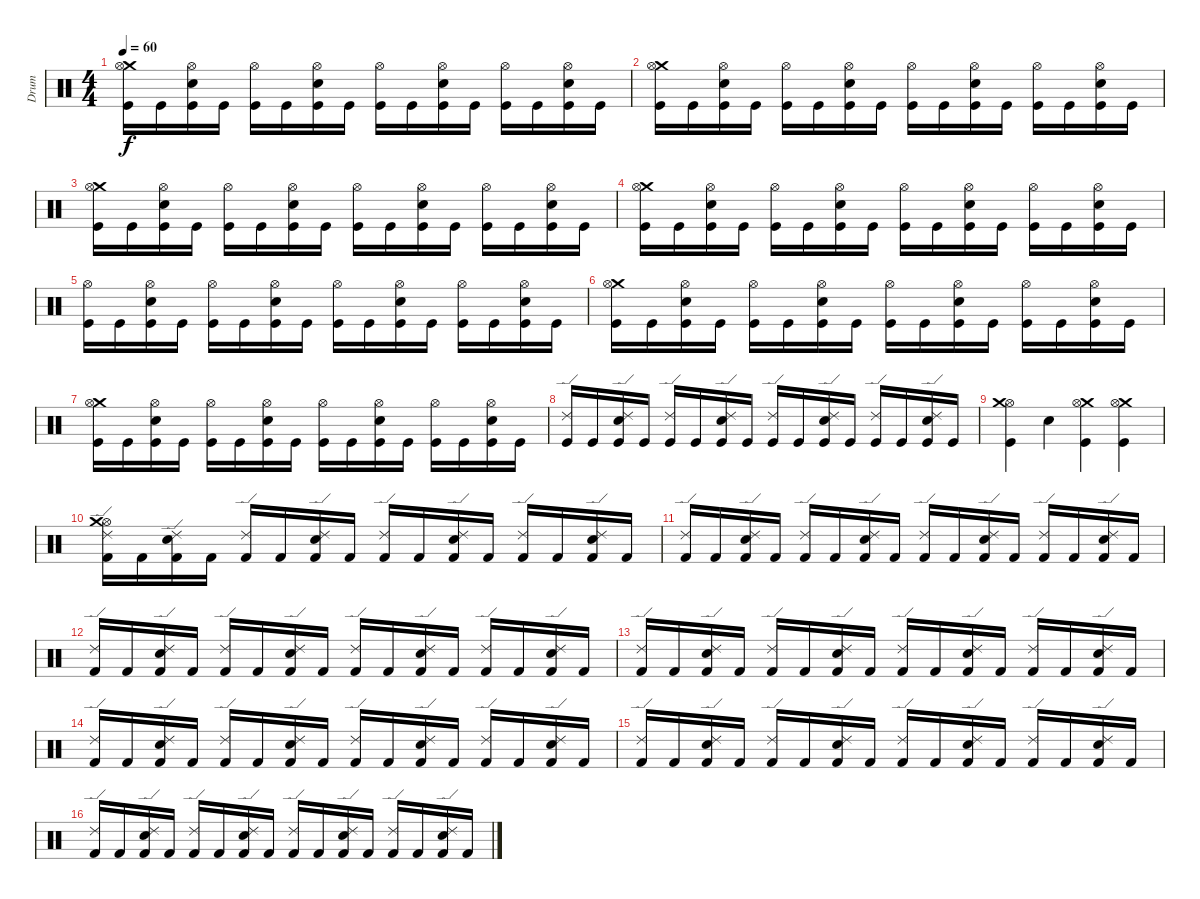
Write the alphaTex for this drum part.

\track ("Drum" "Drum") {instrument percussion}
\staff {score}
\articulation defaults
\ts (4 4)
\tempo 60
\clef neutral
\ks c
("Crash medium (hit)" "Hi-Hat (open)" "Kick (hit)").16{dy f} "Kick (hit)".16 ("Electric Snare (hit)" "Hi-Hat (open)" "Kick (hit)").16 "Kick (hit)".16 ("Hi-Hat (open)" "Kick (hit)").16 "Kick (hit)".16 ("Electric Snare (hit)" "Hi-Hat (open)" "Kick (hit)").16 "Kick (hit)".16 ("Hi-Hat (open)" "Kick (hit)").16 "Kick (hit)".16 ("Electric Snare (hit)" "Hi-Hat (open)" "Kick (hit)").16 "Kick (hit)".16 ("Hi-Hat (open)" "Kick (hit)").16 "Kick (hit)".16 ("Electric Snare (hit)" "Hi-Hat (open)" "Kick (hit)").16 "Kick (hit)".16 |
("Crash medium (hit)" "Hi-Hat (open)" "Kick (hit)").16 "Kick (hit)".16 ("Electric Snare (hit)" "Hi-Hat (open)" "Kick (hit)").16 "Kick (hit)".16 ("Hi-Hat (open)" "Kick (hit)").16 "Kick (hit)".16 ("Electric Snare (hit)" "Hi-Hat (open)" "Kick (hit)").16 "Kick (hit)".16 ("Hi-Hat (open)" "Kick (hit)").16 "Kick (hit)".16 ("Electric Snare (hit)" "Hi-Hat (open)" "Kick (hit)").16 "Kick (hit)".16 ("Hi-Hat (open)" "Kick (hit)").16 "Kick (hit)".16 ("Electric Snare (hit)" "Hi-Hat (open)" "Kick (hit)").16 "Kick (hit)".16 |
("Crash medium (hit)" "Hi-Hat (open)" "Kick (hit)").16 "Kick (hit)".16 ("Electric Snare (hit)" "Hi-Hat (open)" "Kick (hit)").16 "Kick (hit)".16 ("Hi-Hat (open)" "Kick (hit)").16 "Kick (hit)".16 ("Electric Snare (hit)" "Hi-Hat (open)" "Kick (hit)").16 "Kick (hit)".16 ("Hi-Hat (open)" "Kick (hit)").16 "Kick (hit)".16 ("Electric Snare (hit)" "Hi-Hat (open)" "Kick (hit)").16 "Kick (hit)".16 ("Hi-Hat (open)" "Kick (hit)").16 "Kick (hit)".16 ("Electric Snare (hit)" "Hi-Hat (open)" "Kick (hit)").16 "Kick (hit)".16 |
("Crash medium (hit)" "Hi-Hat (open)" "Kick (hit)").16 "Kick (hit)".16 ("Electric Snare (hit)" "Hi-Hat (open)" "Kick (hit)").16 "Kick (hit)".16 ("Hi-Hat (open)" "Kick (hit)").16 "Kick (hit)".16 ("Electric Snare (hit)" "Hi-Hat (open)" "Kick (hit)").16 "Kick (hit)".16 ("Hi-Hat (open)" "Kick (hit)").16 "Kick (hit)".16 ("Electric Snare (hit)" "Hi-Hat (open)" "Kick (hit)").16 "Kick (hit)".16 ("Hi-Hat (open)" "Kick (hit)").16 "Kick (hit)".16 ("Electric Snare (hit)" "Hi-Hat (open)" "Kick (hit)").16 "Kick (hit)".16 |
("Hi-Hat (open)" "Kick (hit)").16 "Kick (hit)".16 ("Electric Snare (hit)" "Hi-Hat (open)" "Kick (hit)").16 "Kick (hit)".16 ("Hi-Hat (open)" "Kick (hit)").16 "Kick (hit)".16 ("Electric Snare (hit)" "Hi-Hat (open)" "Kick (hit)").16 "Kick (hit)".16 ("Hi-Hat (open)" "Kick (hit)").16 "Kick (hit)".16 ("Electric Snare (hit)" "Hi-Hat (open)" "Kick (hit)").16 "Kick (hit)".16 ("Hi-Hat (open)" "Kick (hit)").16 "Kick (hit)".16 ("Electric Snare (hit)" "Hi-Hat (open)" "Kick (hit)").16 "Kick (hit)".16 |
("Crash medium (hit)" "Hi-Hat (open)" "Kick (hit)").16 "Kick (hit)".16 ("Electric Snare (hit)" "Hi-Hat (open)" "Kick (hit)").16 "Kick (hit)".16 ("Hi-Hat (open)" "Kick (hit)").16 "Kick (hit)".16 ("Electric Snare (hit)" "Hi-Hat (open)" "Kick (hit)").16 "Kick (hit)".16 ("Hi-Hat (open)" "Kick (hit)").16 "Kick (hit)".16 ("Electric Snare (hit)" "Hi-Hat (open)" "Kick (hit)").16 "Kick (hit)".16 ("Hi-Hat (open)" "Kick (hit)").16 "Kick (hit)".16 ("Electric Snare (hit)" "Hi-Hat (open)" "Kick (hit)").16 "Kick (hit)".16 |
("Crash medium (hit)" "Hi-Hat (open)" "Kick (hit)").16 "Kick (hit)".16 ("Electric Snare (hit)" "Hi-Hat (open)" "Kick (hit)").16 "Kick (hit)".16 ("Hi-Hat (open)" "Kick (hit)").16 "Kick (hit)".16 ("Electric Snare (hit)" "Hi-Hat (open)" "Kick (hit)").16 "Kick (hit)".16 ("Hi-Hat (open)" "Kick (hit)").16 "Kick (hit)".16 ("Electric Snare (hit)" "Hi-Hat (open)" "Kick (hit)").16 "Kick (hit)".16 ("Hi-Hat (open)" "Kick (hit)").16 "Kick (hit)".16 ("Electric Snare (hit)" "Hi-Hat (open)" "Kick (hit)").16 "Kick (hit)".16 |
("Kick (hit)" "Ride (edge) 2").16 "Kick (hit)".16 ("Electric Snare (hit)" "Kick (hit)" "Ride (edge) 2").16 "Kick (hit)".16 ("Kick (hit)" "Ride (edge) 2").16 "Kick (hit)".16 ("Electric Snare (hit)" "Kick (hit)" "Ride (edge) 2").16 "Kick (hit)".16 ("Kick (hit)" "Ride (edge) 2").16 "Kick (hit)".16 ("Electric Snare (hit)" "Kick (hit)" "Ride (edge) 2").16 "Kick (hit)".16 ("Kick (hit)" "Ride (edge) 2").16 "Kick (hit)".16 ("Electric Snare (hit)" "Kick (hit)" "Ride (edge) 2").16 "Kick (hit)".16 |
("Kick (hit)" "Hi-Hat (open)" "Crash medium (hit)").4 "Electric Snare (hit)".4 ("Crash medium (hit)" "Hi-Hat (open)" "Kick (hit)").4 ("Crash medium (hit)" "Hi-Hat (open)" "Kick (hit)").4 |
("Hi-Hat (open)" "Crash medium (hit)" "Ride (edge) 2" "Kick (hit) 2").16 "Kick (hit) 2".16 ("Electric Snare (hit)" "Ride (edge) 2" "Kick (hit) 2").16 "Kick (hit) 2".16 ("Ride (edge) 2" "Kick (hit) 2").16 "Kick (hit) 2".16 ("Electric Snare (hit)" "Ride (edge) 2" "Kick (hit) 2").16 "Kick (hit) 2".16 ("Ride (edge) 2" "Kick (hit) 2").16 "Kick (hit) 2".16 ("Electric Snare (hit)" "Ride (edge) 2" "Kick (hit) 2").16 "Kick (hit) 2".16 ("Ride (edge) 2" "Kick (hit) 2").16 "Kick (hit) 2".16 ("Electric Snare (hit)" "Ride (edge) 2" "Kick (hit) 2").16 "Kick (hit) 2".16 |
("Ride (edge) 2" "Kick (hit) 2").16 "Kick (hit) 2".16 ("Electric Snare (hit)" "Ride (edge) 2" "Kick (hit) 2").16 "Kick (hit) 2".16 ("Ride (edge) 2" "Kick (hit) 2").16 "Kick (hit) 2".16 ("Electric Snare (hit)" "Ride (edge) 2" "Kick (hit) 2").16 "Kick (hit) 2".16 ("Ride (edge) 2" "Kick (hit) 2").16 "Kick (hit) 2".16 ("Electric Snare (hit)" "Ride (edge) 2" "Kick (hit) 2").16 "Kick (hit) 2".16 ("Ride (edge) 2" "Kick (hit) 2").16 "Kick (hit) 2".16 ("Electric Snare (hit)" "Ride (edge) 2" "Kick (hit) 2").16 "Kick (hit) 2".16 |
("Ride (edge) 2" "Kick (hit) 2").16 "Kick (hit) 2".16 ("Electric Snare (hit)" "Ride (edge) 2" "Kick (hit) 2").16 "Kick (hit) 2".16 ("Ride (edge) 2" "Kick (hit) 2").16 "Kick (hit) 2".16 ("Electric Snare (hit)" "Ride (edge) 2" "Kick (hit) 2").16 "Kick (hit) 2".16 ("Ride (edge) 2" "Kick (hit) 2").16 "Kick (hit) 2".16 ("Electric Snare (hit)" "Ride (edge) 2" "Kick (hit) 2").16 "Kick (hit) 2".16 ("Ride (edge) 2" "Kick (hit) 2").16 "Kick (hit) 2".16 ("Electric Snare (hit)" "Ride (edge) 2" "Kick (hit) 2").16 "Kick (hit) 2".16 |
("Ride (edge) 2" "Kick (hit) 2").16 "Kick (hit) 2".16 ("Electric Snare (hit)" "Ride (edge) 2" "Kick (hit) 2").16 "Kick (hit) 2".16 ("Ride (edge) 2" "Kick (hit) 2").16 "Kick (hit) 2".16 ("Electric Snare (hit)" "Ride (edge) 2" "Kick (hit) 2").16 "Kick (hit) 2".16 ("Ride (edge) 2" "Kick (hit) 2").16 "Kick (hit) 2".16 ("Electric Snare (hit)" "Ride (edge) 2" "Kick (hit) 2").16 "Kick (hit) 2".16 ("Ride (edge) 2" "Kick (hit) 2").16 "Kick (hit) 2".16 ("Electric Snare (hit)" "Ride (edge) 2" "Kick (hit) 2").16 "Kick (hit) 2".16 |
("Ride (edge) 2" "Kick (hit) 2").16 "Kick (hit) 2".16 ("Electric Snare (hit)" "Ride (edge) 2" "Kick (hit) 2").16 "Kick (hit) 2".16 ("Ride (edge) 2" "Kick (hit) 2").16 "Kick (hit) 2".16 ("Electric Snare (hit)" "Ride (edge) 2" "Kick (hit) 2").16 "Kick (hit) 2".16 ("Ride (edge) 2" "Kick (hit) 2").16 "Kick (hit) 2".16 ("Electric Snare (hit)" "Ride (edge) 2" "Kick (hit) 2").16 "Kick (hit) 2".16 ("Ride (edge) 2" "Kick (hit) 2").16 "Kick (hit) 2".16 ("Electric Snare (hit)" "Ride (edge) 2" "Kick (hit) 2").16 "Kick (hit) 2".16 |
("Ride (edge) 2" "Kick (hit) 2").16 "Kick (hit) 2".16 ("Electric Snare (hit)" "Ride (edge) 2" "Kick (hit) 2").16 "Kick (hit) 2".16 ("Ride (edge) 2" "Kick (hit) 2").16 "Kick (hit) 2".16 ("Electric Snare (hit)" "Ride (edge) 2" "Kick (hit) 2").16 "Kick (hit) 2".16 ("Ride (edge) 2" "Kick (hit) 2").16 "Kick (hit) 2".16 ("Electric Snare (hit)" "Ride (edge) 2" "Kick (hit) 2").16 "Kick (hit) 2".16 ("Ride (edge) 2" "Kick (hit) 2").16 "Kick (hit) 2".16 ("Electric Snare (hit)" "Ride (edge) 2" "Kick (hit) 2").16 "Kick (hit) 2".16 |
("Ride (edge) 2" "Kick (hit) 2").16 "Kick (hit) 2".16 ("Electric Snare (hit)" "Ride (edge) 2" "Kick (hit) 2").16 "Kick (hit) 2".16 ("Ride (edge) 2" "Kick (hit) 2").16 "Kick (hit) 2".16 ("Electric Snare (hit)" "Ride (edge) 2" "Kick (hit) 2").16 "Kick (hit) 2".16 ("Ride (edge) 2" "Kick (hit) 2").16 "Kick (hit) 2".16 ("Electric Snare (hit)" "Ride (edge) 2" "Kick (hit) 2").16 "Kick (hit) 2".16 ("Ride (edge) 2" "Kick (hit) 2").16 "Kick (hit) 2".16 ("Electric Snare (hit)" "Ride (edge) 2" "Kick (hit) 2").16 "Kick (hit) 2".16
